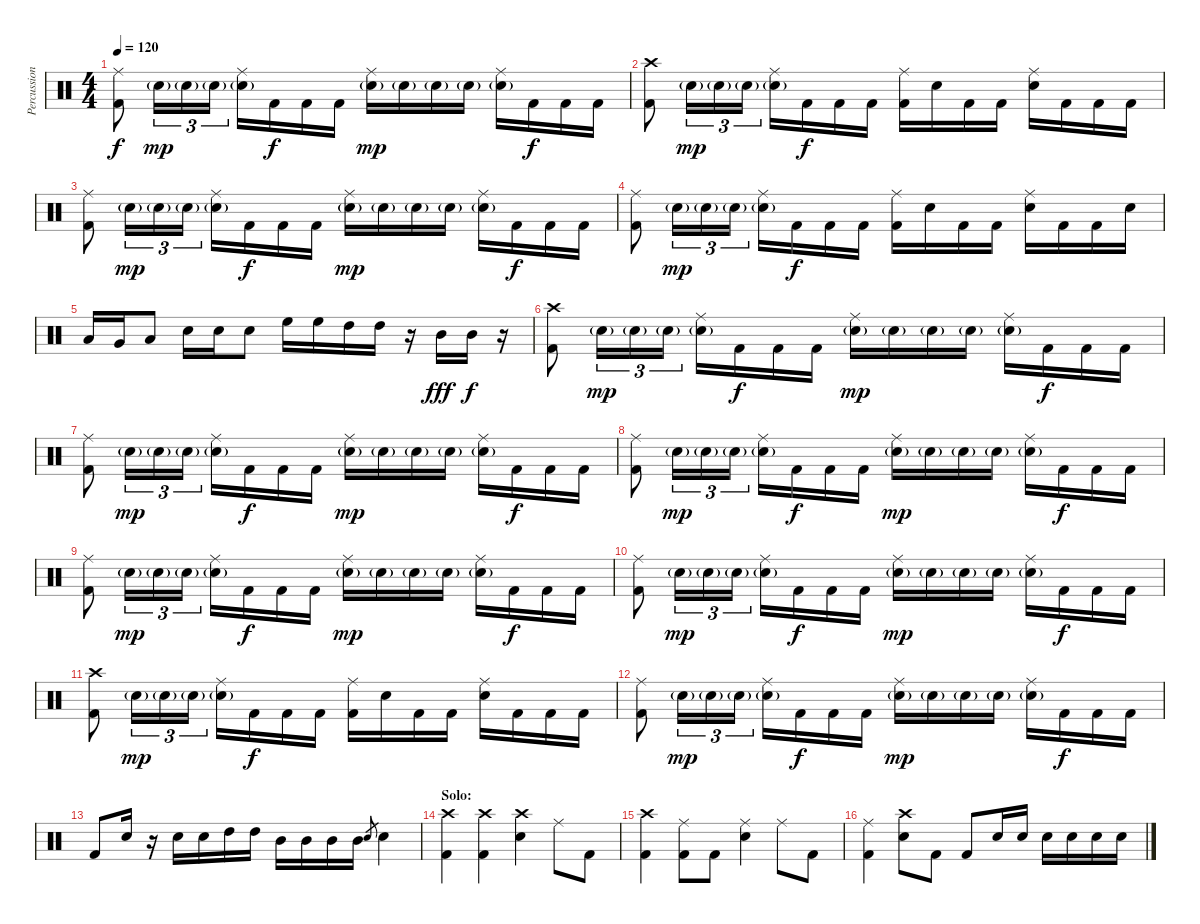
\track ("Percussion" "Percussion") {instrument percussion}
\staff {score}
\articulation defaults
\ts (4 4)
\tempo 120
\clef neutral
\ks c
("Ride (middle)" "Kick (hit) 2").8{dy f} "Electric Snare (hit)"{g}.16{tu (3 2) dy mp} "Electric Snare (hit)"{g}.16{tu (3 2)} "Electric Snare (hit)"{g}.16{tu (3 2)} ("Ride (middle)" "Electric Snare (hit)"{g}).16 "Kick (hit) 2".16{dy f} "Kick (hit) 2".16 "Kick (hit) 2".16 ("Ride (middle)" "Electric Snare (hit)"{g}).16{dy mp} "Electric Snare (hit)"{g}.16 "Electric Snare (hit)"{g}.16 "Electric Snare (hit)"{g}.16 ("Ride (middle)" "Electric Snare (hit)"{g}).16 "Kick (hit) 2".16{dy f} "Kick (hit) 2".16 "Kick (hit) 2".16 |
("Crash high (hit)" "Kick (hit) 2").8 "Electric Snare (hit)"{g}.16{tu (3 2) dy mp} "Electric Snare (hit)"{g}.16{tu (3 2)} "Electric Snare (hit)"{g}.16{tu (3 2)} ("Ride (middle)" "Electric Snare (hit)"{g}).16 "Kick (hit) 2".16{dy f} "Kick (hit) 2".16 "Kick (hit) 2".16 ("Ride (middle)" "Kick (hit) 2").16 "Electric Snare (hit)".16 "Kick (hit) 2".16 "Kick (hit) 2".16 ("Ride (middle)" "Electric Snare (hit)").16 "Kick (hit) 2".16 "Kick (hit) 2".16 "Kick (hit) 2".16 |
("Ride (middle)" "Kick (hit) 2").8 "Electric Snare (hit)"{g}.16{tu (3 2) dy mp} "Electric Snare (hit)"{g}.16{tu (3 2)} "Electric Snare (hit)"{g}.16{tu (3 2)} ("Ride (middle)" "Electric Snare (hit)"{g}).16 "Kick (hit) 2".16{dy f} "Kick (hit) 2".16 "Kick (hit) 2".16 ("Ride (middle)" "Electric Snare (hit)"{g}).16{dy mp} "Electric Snare (hit)"{g}.16 "Electric Snare (hit)"{g}.16 "Electric Snare (hit)"{g}.16 ("Ride (middle)" "Electric Snare (hit)"{g}).16 "Kick (hit) 2".16{dy f} "Kick (hit) 2".16 "Kick (hit) 2".16 |
("Ride (middle)" "Kick (hit) 2").8 "Electric Snare (hit)"{g}.16{tu (3 2) dy mp} "Electric Snare (hit)"{g}.16{tu (3 2)} "Electric Snare (hit)"{g}.16{tu (3 2)} ("Ride (middle)" "Electric Snare (hit)"{g}).16 "Kick (hit) 2".16{dy f} "Kick (hit) 2".16 "Kick (hit) 2".16 ("Ride (middle)" "Kick (hit) 2").16 "Electric Snare (hit)".16 "Kick (hit) 2".16 "Kick (hit) 2".16 ("Ride (middle)" "Electric Snare (hit)").16 "Kick (hit) 2".16 "Kick (hit) 2".16 "Electric Snare (hit)".16 |
"Low Floor Tom (hit)".16 "Very Low Tom (hit)".16 "Low Floor Tom (hit)".8 "Electric Snare (hit)".16 "Electric Snare (hit)".16 "Electric Snare (hit)".8 "High Floor Tom (hit)".16 "High Floor Tom (hit)".16 "High Tom (hit)".16 "High Tom (hit)".16 r.16 "Mid Tom (hit)".16{dy fff} "Mid Tom (hit)".16{dy f} r.16 |
("Crash high (hit)" "Kick (hit) 2").8 "Electric Snare (hit)"{g}.16{tu (3 2) dy mp} "Electric Snare (hit)"{g}.16{tu (3 2)} "Electric Snare (hit)"{g}.16{tu (3 2)} ("Ride (middle)" "Electric Snare (hit)"{g}).16 "Kick (hit) 2".16{dy f} "Kick (hit) 2".16 "Kick (hit) 2".16 ("Ride (middle)" "Electric Snare (hit)"{g}).16{dy mp} "Electric Snare (hit)"{g}.16 "Electric Snare (hit)"{g}.16 "Electric Snare (hit)"{g}.16 ("Ride (middle)" "Electric Snare (hit)"{g}).16 "Kick (hit) 2".16{dy f} "Kick (hit) 2".16 "Kick (hit) 2".16 |
("Ride (middle)" "Kick (hit) 2").8 "Electric Snare (hit)"{g}.16{tu (3 2) dy mp} "Electric Snare (hit)"{g}.16{tu (3 2)} "Electric Snare (hit)"{g}.16{tu (3 2)} ("Ride (middle)" "Electric Snare (hit)"{g}).16 "Kick (hit) 2".16{dy f} "Kick (hit) 2".16 "Kick (hit) 2".16 ("Ride (middle)" "Electric Snare (hit)"{g}).16{dy mp} "Electric Snare (hit)"{g}.16 "Electric Snare (hit)"{g}.16 "Electric Snare (hit)"{g}.16 ("Ride (middle)" "Electric Snare (hit)"{g}).16 "Kick (hit) 2".16{dy f} "Kick (hit) 2".16 "Kick (hit) 2".16 |
("Ride (middle)" "Kick (hit) 2").8 "Electric Snare (hit)"{g}.16{tu (3 2) dy mp} "Electric Snare (hit)"{g}.16{tu (3 2)} "Electric Snare (hit)"{g}.16{tu (3 2)} ("Ride (middle)" "Electric Snare (hit)"{g}).16 "Kick (hit) 2".16{dy f} "Kick (hit) 2".16 "Kick (hit) 2".16 ("Ride (middle)" "Electric Snare (hit)"{g}).16{dy mp} "Electric Snare (hit)"{g}.16 "Electric Snare (hit)"{g}.16 "Electric Snare (hit)"{g}.16 ("Ride (middle)" "Electric Snare (hit)"{g}).16 "Kick (hit) 2".16{dy f} "Kick (hit) 2".16 "Kick (hit) 2".16 |
("Ride (middle)" "Kick (hit) 2").8 "Electric Snare (hit)"{g}.16{tu (3 2) dy mp} "Electric Snare (hit)"{g}.16{tu (3 2)} "Electric Snare (hit)"{g}.16{tu (3 2)} ("Ride (middle)" "Electric Snare (hit)"{g}).16 "Kick (hit) 2".16{dy f} "Kick (hit) 2".16 "Kick (hit) 2".16 ("Ride (middle)" "Electric Snare (hit)"{g}).16{dy mp} "Electric Snare (hit)"{g}.16 "Electric Snare (hit)"{g}.16 "Electric Snare (hit)"{g}.16 ("Ride (middle)" "Electric Snare (hit)"{g}).16 "Kick (hit) 2".16{dy f} "Kick (hit) 2".16 "Kick (hit) 2".16 |
("Ride (middle)" "Kick (hit) 2").8 "Electric Snare (hit)"{g}.16{tu (3 2) dy mp} "Electric Snare (hit)"{g}.16{tu (3 2)} "Electric Snare (hit)"{g}.16{tu (3 2)} ("Ride (middle)" "Electric Snare (hit)"{g}).16 "Kick (hit) 2".16{dy f} "Kick (hit) 2".16 "Kick (hit) 2".16 ("Ride (middle)" "Electric Snare (hit)"{g}).16{dy mp} "Electric Snare (hit)"{g}.16 "Electric Snare (hit)"{g}.16 "Electric Snare (hit)"{g}.16 ("Ride (middle)" "Electric Snare (hit)"{g}).16 "Kick (hit) 2".16{dy f} "Kick (hit) 2".16 "Kick (hit) 2".16 |
("Crash high (hit)" "Kick (hit) 2").8 "Electric Snare (hit)"{g}.16{tu (3 2) dy mp} "Electric Snare (hit)"{g}.16{tu (3 2)} "Electric Snare (hit)"{g}.16{tu (3 2)} ("Ride (middle)" "Electric Snare (hit)"{g}).16 "Kick (hit) 2".16{dy f} "Kick (hit) 2".16 "Kick (hit) 2".16 ("Ride (middle)" "Kick (hit) 2").16 "Electric Snare (hit)".16 "Kick (hit) 2".16 "Kick (hit) 2".16 ("Ride (middle)" "Electric Snare (hit)").16 "Kick (hit) 2".16 "Kick (hit) 2".16 "Kick (hit) 2".16 |
("Ride (middle)" "Kick (hit) 2").8 "Electric Snare (hit)"{g}.16{tu (3 2) dy mp} "Electric Snare (hit)"{g}.16{tu (3 2)} "Electric Snare (hit)"{g}.16{tu (3 2)} ("Ride (middle)" "Electric Snare (hit)"{g}).16 "Kick (hit) 2".16{dy f} "Kick (hit) 2".16 "Kick (hit) 2".16 ("Ride (middle)" "Electric Snare (hit)"{g}).16{dy mp} "Electric Snare (hit)"{g}.16 "Electric Snare (hit)"{g}.16 "Electric Snare (hit)"{g}.16 ("Ride (middle)" "Electric Snare (hit)"{g}).16 "Kick (hit) 2".16{dy f} "Kick (hit) 2".16 "Kick (hit) 2".16 |
"Kick (hit) 2".8 "Electric Snare (hit)".16 r.16 "Electric Snare (hit)".16 "Electric Snare (hit)".16 "High Tom (hit)".16 "High Tom (hit)".16 "Mid Tom (hit)".16 "Mid Tom (hit)".16 "Mid Tom (hit)".16 "Mid Tom (hit)".16 "Electric Snare (hit)".8{gr} "Electric Snare (hit)".4 |
\section ("" "Solo:")
("Crash high (hit)" "Kick (hit) 2").4 ("Crash high (hit)" "Kick (hit) 2").4 ("Crash high (hit)" "Electric Snare (hit)").4 "Ride (middle)".8 "Kick (hit) 2".8 |
("Crash high (hit)" "Kick (hit) 2").4 ("Ride (middle)" "Kick (hit) 2").8 "Kick (hit) 2".8 ("Ride (middle)" "Electric Snare (hit)").4 "Ride (middle)".8 "Kick (hit) 2".8 |
("Ride (middle)" "Kick (hit) 2").4 ("Crash high (hit)" "Electric Snare (hit)").8 "Kick (hit) 2".8 "Kick (hit) 2".8 "Electric Snare (hit)".16 "Electric Snare (hit)".16 "Electric Snare (hit)".16 "Electric Snare (hit)".16 "Electric Snare (hit)".16 "Electric Snare (hit)".16
